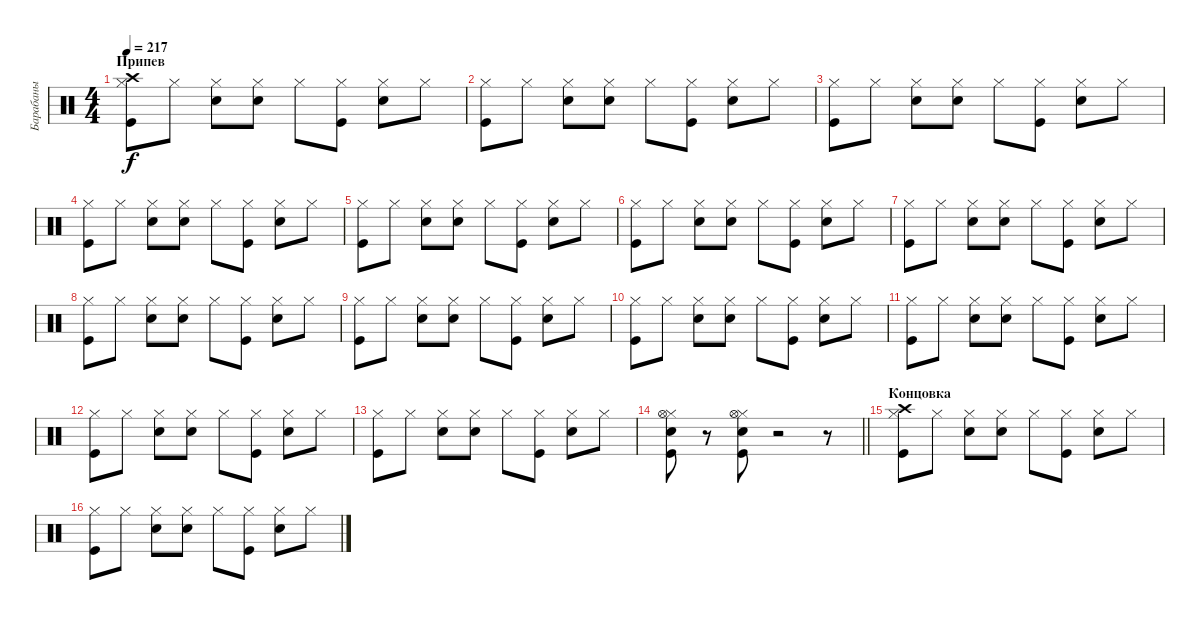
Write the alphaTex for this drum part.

\track ("Барабаны" "Барабаны") {instrument percussion}
\staff {score}
\articulation defaults
\ts (4 4)
\section ("" "Припев")
\tempo 217
\clef neutral
\ks c
("Kick (hit)" "Hi-Hat (closed)" "Crash high (hit)").8{dy f} "Hi-Hat (closed)".8 ("Snare (hit) 2" "Hi-Hat (closed)").8 ("Snare (hit) 2" "Hi-Hat (closed)").8 "Hi-Hat (closed)".8 ("Kick (hit)" "Hi-Hat (closed)").8 ("Snare (hit) 2" "Hi-Hat (closed)").8 "Hi-Hat (closed)".8 |
("Kick (hit)" "Hi-Hat (closed)").8 "Hi-Hat (closed)".8 ("Snare (hit) 2" "Hi-Hat (closed)").8 ("Snare (hit) 2" "Hi-Hat (closed)").8 "Hi-Hat (closed)".8 ("Kick (hit)" "Hi-Hat (closed)").8 ("Snare (hit) 2" "Hi-Hat (closed)").8 "Hi-Hat (closed)".8 |
("Kick (hit)" "Hi-Hat (closed)").8 "Hi-Hat (closed)".8 ("Snare (hit) 2" "Hi-Hat (closed)").8 ("Snare (hit) 2" "Hi-Hat (closed)").8 "Hi-Hat (closed)".8 ("Kick (hit)" "Hi-Hat (closed)").8 ("Snare (hit) 2" "Hi-Hat (closed)").8 "Hi-Hat (closed)".8 |
("Kick (hit)" "Hi-Hat (closed)").8 "Hi-Hat (closed)".8 ("Snare (hit) 2" "Hi-Hat (closed)").8 ("Snare (hit) 2" "Hi-Hat (closed)").8 "Hi-Hat (closed)".8 ("Kick (hit)" "Hi-Hat (closed)").8 ("Snare (hit) 2" "Hi-Hat (closed)").8 "Hi-Hat (closed)".8 |
("Kick (hit)" "Hi-Hat (closed)").8 "Hi-Hat (closed)".8 ("Snare (hit) 2" "Hi-Hat (closed)").8 ("Snare (hit) 2" "Hi-Hat (closed)").8 "Hi-Hat (closed)".8 ("Kick (hit)" "Hi-Hat (closed)").8 ("Snare (hit) 2" "Hi-Hat (closed)").8 "Hi-Hat (closed)".8 |
("Kick (hit)" "Hi-Hat (closed)").8 "Hi-Hat (closed)".8 ("Snare (hit) 2" "Hi-Hat (closed)").8 ("Snare (hit) 2" "Hi-Hat (closed)").8 "Hi-Hat (closed)".8 ("Kick (hit)" "Hi-Hat (closed)").8 ("Snare (hit) 2" "Hi-Hat (closed)").8 "Hi-Hat (closed)".8 |
("Kick (hit)" "Hi-Hat (closed)").8 "Hi-Hat (closed)".8 ("Snare (hit) 2" "Hi-Hat (closed)").8 ("Snare (hit) 2" "Hi-Hat (closed)").8 "Hi-Hat (closed)".8 ("Kick (hit)" "Hi-Hat (closed)").8 ("Snare (hit) 2" "Hi-Hat (closed)").8 "Hi-Hat (closed)".8 |
("Kick (hit)" "Hi-Hat (closed)").8 "Hi-Hat (closed)".8 ("Snare (hit) 2" "Hi-Hat (closed)").8 ("Snare (hit) 2" "Hi-Hat (closed)").8 "Hi-Hat (closed)".8 ("Kick (hit)" "Hi-Hat (closed)").8 ("Snare (hit) 2" "Hi-Hat (closed)").8 "Hi-Hat (closed)".8 |
("Kick (hit)" "Hi-Hat (closed)").8 "Hi-Hat (closed)".8 ("Snare (hit) 2" "Hi-Hat (closed)").8 ("Snare (hit) 2" "Hi-Hat (closed)").8 "Hi-Hat (closed)".8 ("Kick (hit)" "Hi-Hat (closed)").8 ("Snare (hit) 2" "Hi-Hat (closed)").8 "Hi-Hat (closed)".8 |
("Kick (hit)" "Hi-Hat (closed)").8 "Hi-Hat (closed)".8 ("Snare (hit) 2" "Hi-Hat (closed)").8 ("Snare (hit) 2" "Hi-Hat (closed)").8 "Hi-Hat (closed)".8 ("Kick (hit)" "Hi-Hat (closed)").8 ("Snare (hit) 2" "Hi-Hat (closed)").8 "Hi-Hat (closed)".8 |
("Kick (hit)" "Hi-Hat (closed)").8 "Hi-Hat (closed)".8 ("Snare (hit) 2" "Hi-Hat (closed)").8 ("Snare (hit) 2" "Hi-Hat (closed)").8 "Hi-Hat (closed)".8 ("Kick (hit)" "Hi-Hat (closed)").8 ("Snare (hit) 2" "Hi-Hat (closed)").8 "Hi-Hat (closed)".8 |
("Kick (hit)" "Hi-Hat (closed)").8 "Hi-Hat (closed)".8 ("Snare (hit) 2" "Hi-Hat (closed)").8 ("Snare (hit) 2" "Hi-Hat (closed)").8 "Hi-Hat (closed)".8 ("Kick (hit)" "Hi-Hat (closed)").8 ("Snare (hit) 2" "Hi-Hat (closed)").8 "Hi-Hat (closed)".8 |
("Kick (hit)" "Hi-Hat (closed)").8 "Hi-Hat (closed)".8 ("Snare (hit) 2" "Hi-Hat (closed)").8 ("Snare (hit) 2" "Hi-Hat (closed)").8 "Hi-Hat (closed)".8 ("Kick (hit)" "Hi-Hat (closed)").8 ("Snare (hit) 2" "Hi-Hat (closed)").8 "Hi-Hat (closed)".8 |
\barLineRight lightlight
("Kick (hit)" "Snare (hit) 2" "Hi-Hat (closed)" "Hi-Hat (open)").8 r.8 ("Kick (hit)" "Snare (hit) 2" "Hi-Hat (closed)" "Hi-Hat (open)").8 r.2 r.8 |
\section ("" "Концовка")
("Kick (hit)" "Hi-Hat (closed)" "Crash high (hit)").8 "Hi-Hat (closed)".8 ("Snare (hit) 2" "Hi-Hat (closed)").8 ("Snare (hit) 2" "Hi-Hat (closed)").8 "Hi-Hat (closed)".8 ("Kick (hit)" "Hi-Hat (closed)").8 ("Snare (hit) 2" "Hi-Hat (closed)").8 "Hi-Hat (closed)".8 |
("Kick (hit)" "Hi-Hat (closed)").8 "Hi-Hat (closed)".8 ("Snare (hit) 2" "Hi-Hat (closed)").8 ("Snare (hit) 2" "Hi-Hat (closed)").8 "Hi-Hat (closed)".8 ("Kick (hit)" "Hi-Hat (closed)").8 ("Snare (hit) 2" "Hi-Hat (closed)").8 "Hi-Hat (closed)".8
